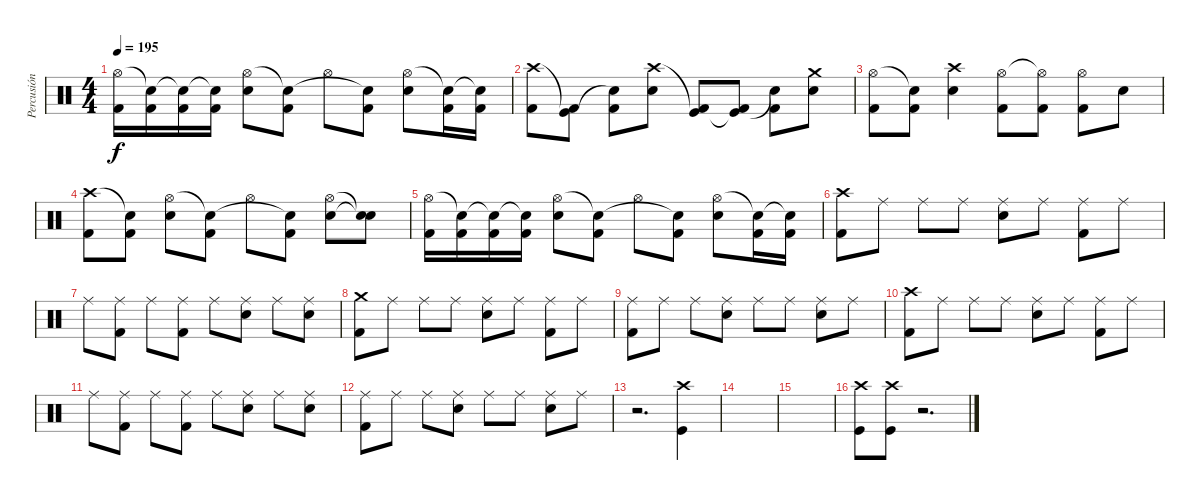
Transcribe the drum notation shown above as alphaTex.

\track ("Percusión" "Percusión") {instrument percussion}
\staff {score}
\articulation defaults
\ts (4 4)
\tempo 195
\clef neutral
\ks c
("Kick (hit) 2" "Hi-Hat (open)").16{dy f} ("Kick (hit) 2" "Snare (hit)"{t}).16 ("Kick (hit) 2" "Snare (hit)"{t}).16 ("Kick (hit) 2" "Snare (hit)"{t}).16 ("Snare (hit) 2" "Hi-Hat (open)").8 ("Kick (hit) 2" "Snare (hit)"{t}).8 "Hi-Hat (open)".8 ("Kick (hit) 2" "Snare (hit)"{t}).8 ("Snare (hit) 2" "Hi-Hat (open)").8 ("Kick (hit) 2" "Snare (hit)"{t}).16 ("Kick (hit) 2" "Snare (hit)"{t}).16 |
("Kick (hit) 2" "Crash high (hit)").8 ("Kick (hit) 2" "Kick (hit)"{t}).8 ("Kick (hit) 2" "Snare (hit)"{t}).8 ("Snare (hit) 2" "Crash high (hit)").8 ("Kick (hit) 2" "Kick (hit)"{t}).8 ("Kick (hit) 2" "Kick (hit)"{t}).8 ("Kick (hit) 2" "Snare (hit)"{t}).8 ("Snare (hit) 2" "Crash medium (hit)").8 |
("Kick (hit) 2" "Hi-Hat (open)").8 ("Kick (hit) 2" "Snare (hit)"{t}).8 ("Snare (hit) 2" "Crash high (hit)").4 ("Kick (hit) 2" "Hi-Hat (open)").8 ("Kick (hit) 2" "Hi-Hat (open)"{t}).8 ("Kick (hit) 2" "Hi-Hat (open)").8 "Snare (hit) 2".8 |
("Kick (hit) 2" "Crash high (hit)").8 ("Kick (hit) 2" "Snare (hit)"{t}).8 ("Snare (hit) 2" "Hi-Hat (open)").8 ("Kick (hit) 2" "Snare (hit)"{t}).8 "Hi-Hat (open)".8 ("Kick (hit) 2" "Snare (hit)"{t}).8 ("Snare (hit) 2" "Hi-Hat (open)").8 ("Snare (hit)"{t} "Snare (hit)"{t}).8 |
("Kick (hit) 2" "Hi-Hat (open)").16 ("Kick (hit) 2" "Snare (hit)"{t}).16 ("Kick (hit) 2" "Snare (hit)"{t}).16 ("Kick (hit) 2" "Snare (hit)"{t}).16 ("Snare (hit) 2" "Hi-Hat (open)").8 ("Kick (hit) 2" "Snare (hit)"{t}).8 "Hi-Hat (open)".8 ("Kick (hit) 2" "Snare (hit)"{t}).8 ("Snare (hit) 2" "Hi-Hat (open)").8 ("Kick (hit) 2" "Snare (hit)"{t}).16 ("Kick (hit) 2" "Snare (hit)"{t}).16 |
("Kick (hit) 2" "Crash high (hit)").8 "Ride (middle)".8 "Ride (middle)".8 "Ride (middle)".8 ("Snare (hit) 2" "Ride (middle)").8 "Ride (middle)".8 ("Kick (hit) 2" "Ride (middle)").8 "Ride (middle)".8 |
"Ride (middle)".8 ("Kick (hit) 2" "Ride (middle)").8 "Ride (middle)".8 ("Kick (hit) 2" "Ride (middle)").8 "Ride (middle)".8 ("Snare (hit) 2" "Ride (middle)").8 "Ride (middle)".8 ("Snare (hit) 2" "Ride (middle)").8 |
("Kick (hit) 2" "Crash medium (hit)").8 "Ride (middle)".8 "Ride (middle)".8 "Ride (middle)".8 ("Snare (hit) 2" "Ride (middle)").8 "Ride (middle)".8 ("Kick (hit) 2" "Ride (middle)").8 "Ride (middle)".8 |
("Kick (hit) 2" "Ride (middle)").8 "Ride (middle)".8 "Ride (middle)".8 ("Snare (hit) 2" "Ride (middle)").8 "Ride (middle)".8 "Ride (middle)".8 ("Snare (hit) 2" "Ride (middle)").8 "Ride (middle)".8 |
("Kick (hit) 2" "Crash high (hit)").8 "Ride (middle)".8 "Ride (middle)".8 "Ride (middle)".8 ("Snare (hit) 2" "Ride (middle)").8 "Ride (middle)".8 ("Kick (hit) 2" "Ride (middle)").8 "Ride (middle)".8 |
"Ride (middle)".8 ("Kick (hit) 2" "Ride (middle)").8 "Ride (middle)".8 ("Kick (hit) 2" "Ride (middle)").8 "Ride (middle)".8 ("Snare (hit) 2" "Ride (middle)").8 "Ride (middle)".8 ("Snare (hit) 2" "Ride (middle)").8 |
("Kick (hit) 2" "Ride (middle)").8 "Ride (middle)".8 "Ride (middle)".8 ("Snare (hit) 2" "Ride (middle)").8 "Ride (middle)".8 "Ride (middle)".8 ("Snare (hit) 2" "Ride (middle)").8 "Ride (middle)".8 |
r.2{d} ("Crash high (hit)" "Kick (hit)").4 |
|
|
("Crash high (hit)" "Kick (hit)").8 ("Crash high (hit)" "Kick (hit)").8 r.2{d}
